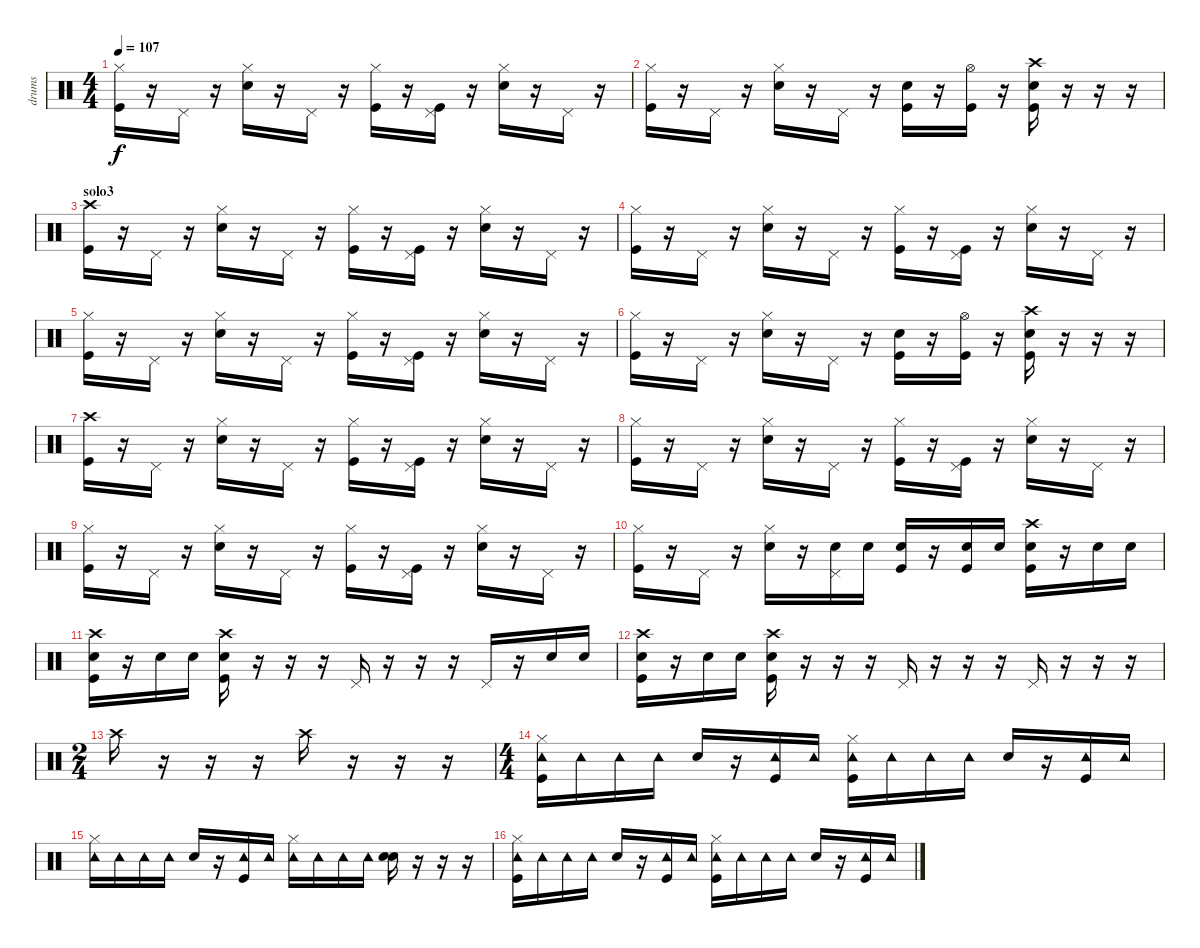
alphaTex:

\track ("drums" "drums") {instrument percussion}
\staff {score}
\articulation defaults
\ts (4 4)
\tempo 107
\clef neutral
\ks c
("Hi-Hat (closed)" "Kick (hit)").16{dy f} r.16 "Pedal Hi-Hat (hit)".16 r.16 ("Hi-Hat (closed)" "Snare (hit) 2").16 r.16 "Pedal Hi-Hat (hit)".16 r.16 ("Hi-Hat (closed)" "Kick (hit)").16 r.16 ("Pedal Hi-Hat (hit)" "Kick (hit)").16 r.16 ("Hi-Hat (closed)" "Snare (hit) 2").16 r.16 "Pedal Hi-Hat (hit)".16 r.16 |
("Hi-Hat (closed)" "Kick (hit)").16 r.16 "Pedal Hi-Hat (hit)".16 r.16 ("Hi-Hat (closed)" "Snare (hit) 2").16 r.16 "Pedal Hi-Hat (hit)".16 r.16 ("Snare (hit) 2" "Kick (hit)").16 r.16 ("Hi-Hat (open)" "Kick (hit)").16 r.16 ("Crash high (hit)" "Snare (hit) 2" "Kick (hit)").16 r.16 r.16 r.16 |
\section ("" "solo3")
("Crash high (hit)" "Kick (hit)").16 r.16 "Pedal Hi-Hat (hit)".16 r.16 ("Hi-Hat (closed)" "Snare (hit) 2").16 r.16 "Pedal Hi-Hat (hit)".16 r.16 ("Hi-Hat (closed)" "Kick (hit)").16 r.16 ("Pedal Hi-Hat (hit)" "Kick (hit)").16 r.16 ("Hi-Hat (closed)" "Snare (hit) 2").16 r.16 "Pedal Hi-Hat (hit)".16 r.16 |
("Hi-Hat (closed)" "Kick (hit)").16 r.16 "Pedal Hi-Hat (hit)".16 r.16 ("Hi-Hat (closed)" "Snare (hit) 2").16 r.16 "Pedal Hi-Hat (hit)".16 r.16 ("Hi-Hat (closed)" "Kick (hit)").16 r.16 ("Pedal Hi-Hat (hit)" "Kick (hit)").16 r.16 ("Hi-Hat (closed)" "Snare (hit) 2").16 r.16 "Pedal Hi-Hat (hit)".16 r.16 |
("Hi-Hat (closed)" "Kick (hit)").16 r.16 "Pedal Hi-Hat (hit)".16 r.16 ("Hi-Hat (closed)" "Snare (hit) 2").16 r.16 "Pedal Hi-Hat (hit)".16 r.16 ("Hi-Hat (closed)" "Kick (hit)").16 r.16 ("Pedal Hi-Hat (hit)" "Kick (hit)").16 r.16 ("Hi-Hat (closed)" "Snare (hit) 2").16 r.16 "Pedal Hi-Hat (hit)".16 r.16 |
("Hi-Hat (closed)" "Kick (hit)").16 r.16 "Pedal Hi-Hat (hit)".16 r.16 ("Hi-Hat (closed)" "Snare (hit) 2").16 r.16 "Pedal Hi-Hat (hit)".16 r.16 ("Snare (hit) 2" "Kick (hit)").16 r.16 ("Hi-Hat (open)" "Kick (hit)").16 r.16 ("Crash high (hit)" "Snare (hit) 2" "Kick (hit)").16 r.16 r.16 r.16 |
("Crash high (hit)" "Kick (hit)").16 r.16 "Pedal Hi-Hat (hit)".16 r.16 ("Hi-Hat (closed)" "Snare (hit) 2").16 r.16 "Pedal Hi-Hat (hit)".16 r.16 ("Hi-Hat (closed)" "Kick (hit)").16 r.16 ("Pedal Hi-Hat (hit)" "Kick (hit)").16 r.16 ("Hi-Hat (closed)" "Snare (hit) 2").16 r.16 "Pedal Hi-Hat (hit)".16 r.16 |
("Hi-Hat (closed)" "Kick (hit)").16 r.16 "Pedal Hi-Hat (hit)".16 r.16 ("Hi-Hat (closed)" "Snare (hit) 2").16 r.16 "Pedal Hi-Hat (hit)".16 r.16 ("Hi-Hat (closed)" "Kick (hit)").16 r.16 ("Pedal Hi-Hat (hit)" "Kick (hit)").16 r.16 ("Hi-Hat (closed)" "Snare (hit) 2").16 r.16 "Pedal Hi-Hat (hit)".16 r.16 |
("Hi-Hat (closed)" "Kick (hit)").16 r.16 "Pedal Hi-Hat (hit)".16 r.16 ("Hi-Hat (closed)" "Snare (hit) 2").16 r.16 "Pedal Hi-Hat (hit)".16 r.16 ("Hi-Hat (closed)" "Kick (hit)").16 r.16 ("Pedal Hi-Hat (hit)" "Kick (hit)").16 r.16 ("Hi-Hat (closed)" "Snare (hit) 2").16 r.16 "Pedal Hi-Hat (hit)".16 r.16 |
("Hi-Hat (closed)" "Kick (hit)").16 r.16 "Pedal Hi-Hat (hit)".16 r.16 ("Hi-Hat (closed)" "Snare (hit) 2").16 r.16 ("Pedal Hi-Hat (hit)" "Snare (hit) 2").16 "Snare (hit) 2".16 ("Snare (hit) 2" "Kick (hit)").16 r.16 ("Snare (hit) 2" "Kick (hit)").16 "Snare (hit) 2".16 ("Crash high (hit)" "Snare (hit) 2" "Kick (hit)").16 r.16 "Snare (hit) 2".16 "Snare (hit) 2".16 |
("Crash high (hit)" "Snare (hit) 2" "Kick (hit)").16 r.16 "Snare (hit) 2".16 "Snare (hit) 2".16 ("Crash high (hit)" "Snare (hit) 2" "Kick (hit)").16 r.16 r.16 r.16 "Pedal Hi-Hat (hit)".16 r.16 r.16 r.16 "Pedal Hi-Hat (hit)".16 r.16 "Snare (hit) 2".16 "Snare (hit) 2".16 |
("Crash high (hit)" "Snare (hit) 2" "Kick (hit)").16 r.16 "Snare (hit) 2".16 "Snare (hit) 2".16 ("Crash high (hit)" "Snare (hit) 2" "Kick (hit)").16 r.16 r.16 r.16 "Pedal Hi-Hat (hit)".16 r.16 r.16 r.16 "Pedal Hi-Hat (hit)".16 r.16 r.16 r.16 |
\ts (2 4)
"Crash high (hit)".16 r.16 r.16 r.16 "Crash high (hit)".16 r.16 r.16 r.16 |
\ts (4 4)
("Hi-Hat (closed)" "Tambourine (hit)" "Kick (hit)").16 "Tambourine (hit)".16 "Tambourine (hit)".16 "Tambourine (hit)".16 "Snare (hit) 2".16 r.16 ("Tambourine (hit)" "Kick (hit)").16 "Tambourine (hit)".16 ("Hi-Hat (closed)" "Tambourine (hit)" "Kick (hit)").16 "Tambourine (hit)".16 "Tambourine (hit)".16 "Tambourine (hit)".16 "Snare (hit) 2".16 r.16 ("Tambourine (hit)" "Kick (hit)").16 "Tambourine (hit)".16 |
("Hi-Hat (closed)" "Tambourine (hit)").16 "Tambourine (hit)".16 "Tambourine (hit)".16 "Tambourine (hit)".16 "Snare (hit) 2".16 r.16 ("Tambourine (hit)" "Kick (hit)").16 "Tambourine (hit)".16 ("Hi-Hat (closed)" "Tambourine (hit)").16 "Tambourine (hit)".16 "Tambourine (hit)".16 "Tambourine (hit)".16 ("Snare (hit) 2" "Electric Snare (hit)").16 r.16 r.16 r.16 |
("Hi-Hat (closed)" "Tambourine (hit)" "Kick (hit)").16 "Tambourine (hit)".16 "Tambourine (hit)".16 "Tambourine (hit)".16 "Snare (hit) 2".16 r.16 ("Tambourine (hit)" "Kick (hit)").16 "Tambourine (hit)".16 ("Hi-Hat (closed)" "Tambourine (hit)" "Kick (hit)").16 "Tambourine (hit)".16 "Tambourine (hit)".16 "Tambourine (hit)".16 "Snare (hit) 2".16 r.16 ("Tambourine (hit)" "Kick (hit)").16 "Tambourine (hit)".16
